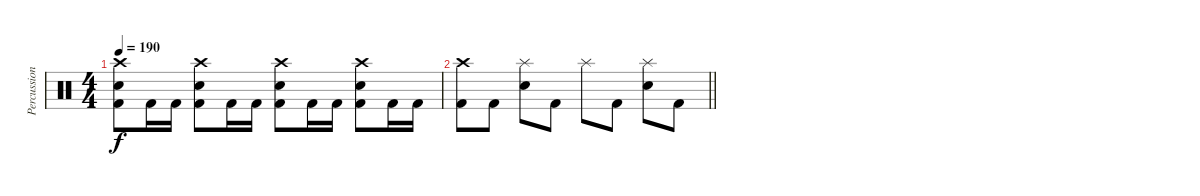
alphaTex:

\track ("Percussion" "Percussion") {instrument percussion}
\staff {score}
\articulation defaults
\ts (4 4)
\tempo 190
\clef neutral
\ks c
("Crash high (hit)" "Snare (hit) 2" "Kick (hit) 2").8{dy f} "Kick (hit) 2".16 "Kick (hit) 2".16 ("Crash high (hit)" "Snare (hit) 2" "Kick (hit) 2").8 "Kick (hit) 2".16 "Kick (hit) 2".16 ("Crash high (hit)" "Snare (hit) 2" "Kick (hit) 2").8 "Kick (hit) 2".16 "Kick (hit) 2".16 ("Crash high (hit)" "Snare (hit) 2" "Kick (hit) 2").8 "Kick (hit) 2".16 "Kick (hit) 2".16 |
\barLineRight lightlight
("Crash high (hit)" "Kick (hit) 2").8 "Kick (hit) 2".8 ("Splash (hit)" "Snare (hit) 2").8 "Kick (hit) 2".8 "Splash (hit)".8 "Kick (hit) 2".8 ("Splash (hit)" "Snare (hit) 2").8 "Kick (hit) 2".8
